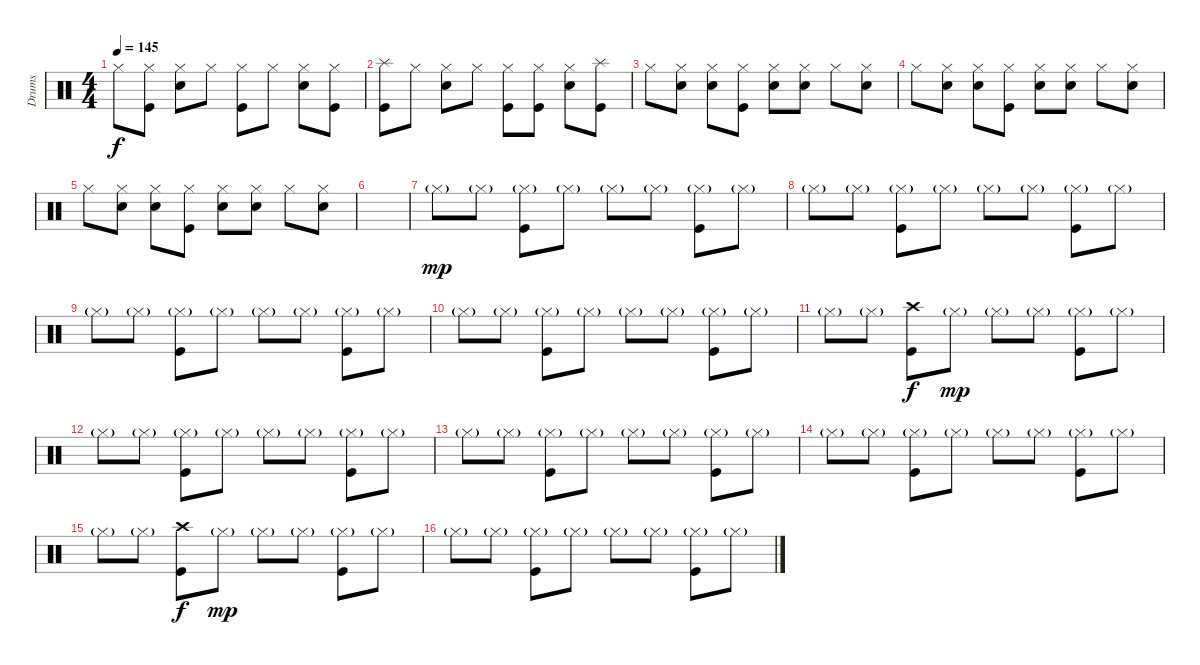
\track ("Drums" "Drums") {instrument percussion}
\staff {score}
\articulation defaults
\ts (4 4)
\tempo 145
\clef neutral
\ks c "Hi-Hat (closed)".8{dy f}
("Hi-Hat (closed)" "Kick (hit)").8 ("Hi-Hat (closed)" "Snare (hit) 2").8 "Hi-Hat (closed)".8 ("Hi-Hat (closed)" "Kick (hit)").8 "Hi-Hat (closed)".8 ("Hi-Hat (closed)" "Snare (hit) 2").8 ("Hi-Hat (closed)" "Kick (hit)").8 |
("Splash (hit)" "Kick (hit)").8 "Hi-Hat (closed)".8 ("Hi-Hat (closed)" "Snare (hit) 2").8 "Hi-Hat (closed)".8 ("Hi-Hat (closed)" "Kick (hit)").8 ("Hi-Hat (closed)" "Kick (hit)").8 ("Hi-Hat (closed)" "Snare (hit) 2").8 ("Splash (hit)" "Kick (hit)").8 |
"Hi-Hat (closed)".8 ("Hi-Hat (closed)" "Snare (hit) 2").8 ("Hi-Hat (closed)" "Snare (hit) 2").8 ("Hi-Hat (closed)" "Kick (hit)").8 ("Hi-Hat (closed)" "Snare (hit) 2").8 ("Hi-Hat (closed)" "Snare (hit) 2").8 "Hi-Hat (closed)".8 ("Hi-Hat (closed)" "Snare (hit) 2").8 |
"Hi-Hat (closed)".8 ("Hi-Hat (closed)" "Snare (hit) 2").8 ("Hi-Hat (closed)" "Snare (hit) 2").8 ("Hi-Hat (closed)" "Kick (hit)").8 ("Hi-Hat (closed)" "Snare (hit) 2").8 ("Hi-Hat (closed)" "Snare (hit) 2").8 "Hi-Hat (closed)".8 ("Hi-Hat (closed)" "Snare (hit) 2").8 |
"Hi-Hat (closed)".8 ("Hi-Hat (closed)" "Snare (hit) 2").8 ("Hi-Hat (closed)" "Snare (hit) 2").8 ("Hi-Hat (closed)" "Kick (hit)").8 ("Hi-Hat (closed)" "Snare (hit) 2").8 ("Hi-Hat (closed)" "Snare (hit) 2").8 "Hi-Hat (closed)".8 ("Hi-Hat (closed)" "Snare (hit) 2").8 |
|
"Hi-Hat (closed)"{g}.8{dy mp} "Hi-Hat (closed)"{g}.8 ("Hi-Hat (closed)"{g} "Kick (hit)").8 "Hi-Hat (closed)"{g}.8 "Hi-Hat (closed)"{g}.8 "Hi-Hat (closed)"{g}.8 ("Hi-Hat (closed)"{g} "Kick (hit)").8 "Hi-Hat (closed)"{g}.8 |
"Hi-Hat (closed)"{g}.8 "Hi-Hat (closed)"{g}.8 ("Hi-Hat (closed)"{g} "Kick (hit)").8 "Hi-Hat (closed)"{g}.8 "Hi-Hat (closed)"{g}.8 "Hi-Hat (closed)"{g}.8 ("Hi-Hat (closed)"{g} "Kick (hit)").8 "Hi-Hat (closed)"{g}.8 |
"Hi-Hat (closed)"{g}.8 "Hi-Hat (closed)"{g}.8 ("Hi-Hat (closed)"{g} "Kick (hit)").8 "Hi-Hat (closed)"{g}.8 "Hi-Hat (closed)"{g}.8 "Hi-Hat (closed)"{g}.8 ("Hi-Hat (closed)"{g} "Kick (hit)").8 "Hi-Hat (closed)"{g}.8 |
"Hi-Hat (closed)"{g}.8 "Hi-Hat (closed)"{g}.8 ("Hi-Hat (closed)"{g} "Kick (hit)").8 "Hi-Hat (closed)"{g}.8 "Hi-Hat (closed)"{g}.8 "Hi-Hat (closed)"{g}.8 ("Hi-Hat (closed)"{g} "Kick (hit)").8 "Hi-Hat (closed)"{g}.8 |
"Hi-Hat (closed)"{g}.8 "Hi-Hat (closed)"{g}.8 ("Crash high (hit)" "Kick (hit)").8{dy f} "Hi-Hat (closed)"{g}.8{dy mp} "Hi-Hat (closed)"{g}.8 "Hi-Hat (closed)"{g}.8 ("Hi-Hat (closed)"{g} "Kick (hit)").8 "Hi-Hat (closed)"{g}.8 |
"Hi-Hat (closed)"{g}.8 "Hi-Hat (closed)"{g}.8 ("Hi-Hat (closed)"{g} "Kick (hit)").8 "Hi-Hat (closed)"{g}.8 "Hi-Hat (closed)"{g}.8 "Hi-Hat (closed)"{g}.8 ("Hi-Hat (closed)"{g} "Kick (hit)").8 "Hi-Hat (closed)"{g}.8 |
"Hi-Hat (closed)"{g}.8 "Hi-Hat (closed)"{g}.8 ("Hi-Hat (closed)"{g} "Kick (hit)").8 "Hi-Hat (closed)"{g}.8 "Hi-Hat (closed)"{g}.8 "Hi-Hat (closed)"{g}.8 ("Hi-Hat (closed)"{g} "Kick (hit)").8 "Hi-Hat (closed)"{g}.8 |
"Hi-Hat (closed)"{g}.8 "Hi-Hat (closed)"{g}.8 ("Hi-Hat (closed)"{g} "Kick (hit)").8 "Hi-Hat (closed)"{g}.8 "Hi-Hat (closed)"{g}.8 "Hi-Hat (closed)"{g}.8 ("Hi-Hat (closed)"{g} "Kick (hit)").8 "Hi-Hat (closed)"{g}.8 |
"Hi-Hat (closed)"{g}.8 "Hi-Hat (closed)"{g}.8 ("Crash high (hit)" "Kick (hit)").8{dy f} "Hi-Hat (closed)"{g}.8{dy mp} "Hi-Hat (closed)"{g}.8 "Hi-Hat (closed)"{g}.8 ("Hi-Hat (closed)"{g} "Kick (hit)").8 "Hi-Hat (closed)"{g}.8 |
"Hi-Hat (closed)"{g}.8 "Hi-Hat (closed)"{g}.8 ("Hi-Hat (closed)"{g} "Kick (hit)").8 "Hi-Hat (closed)"{g}.8 "Hi-Hat (closed)"{g}.8 "Hi-Hat (closed)"{g}.8 ("Hi-Hat (closed)"{g} "Kick (hit)").8 "Hi-Hat (closed)"{g}.8
